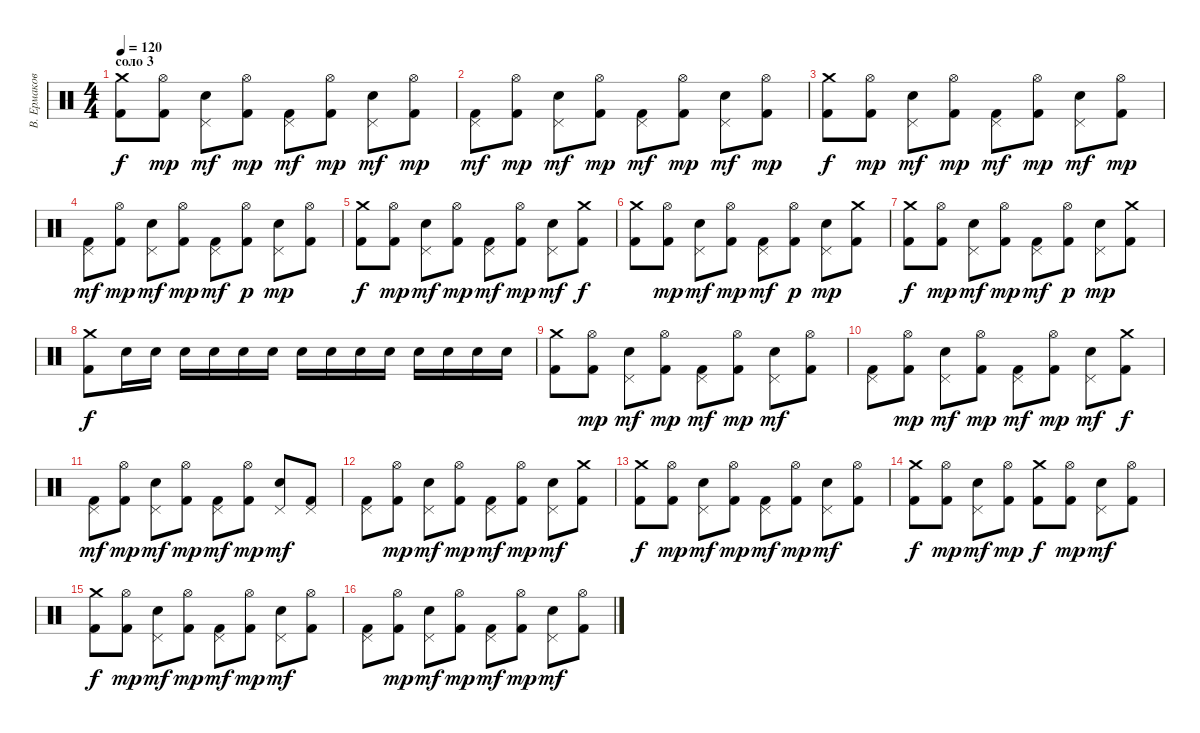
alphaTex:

\track ("В. Ермаков" "В. Ермаков") {instrument percussion}
\staff {score}
\articulation defaults
\ts (4 4)
\section ("" "соло 3")
\tempo 120
\clef neutral
\ks c
("Crash medium (hit)" "Kick (hit) 2").8{dy f} ("Hi-Hat (open)" "Kick (hit) 2").8{dy mp} ("Pedal Hi-Hat (hit)" "Electric Snare (hit)").8{dy mf} ("Hi-Hat (open)" "Kick (hit) 2").8{dy mp} ("Pedal Hi-Hat (hit)" "Kick (hit) 2").8{dy mf} ("Hi-Hat (open)" "Kick (hit) 2").8{dy mp} ("Pedal Hi-Hat (hit)" "Electric Snare (hit)").8{dy mf} ("Hi-Hat (open)" "Kick (hit) 2").8{dy mp} |
("Pedal Hi-Hat (hit)" "Kick (hit) 2").8{dy mf} ("Hi-Hat (open)" "Kick (hit) 2").8{dy mp} ("Pedal Hi-Hat (hit)" "Electric Snare (hit)").8{dy mf} ("Hi-Hat (open)" "Kick (hit) 2").8{dy mp} ("Pedal Hi-Hat (hit)" "Kick (hit) 2").8{dy mf} ("Hi-Hat (open)" "Kick (hit) 2").8{dy mp} ("Pedal Hi-Hat (hit)" "Electric Snare (hit)").8{dy mf} ("Hi-Hat (open)" "Kick (hit) 2").8{dy mp} |
("Crash medium (hit)" "Kick (hit) 2").8{dy f} ("Hi-Hat (open)" "Kick (hit) 2").8{dy mp} ("Pedal Hi-Hat (hit)" "Electric Snare (hit)").8{dy mf} ("Hi-Hat (open)" "Kick (hit) 2").8{dy mp} ("Pedal Hi-Hat (hit)" "Kick (hit) 2").8{dy mf} ("Hi-Hat (open)" "Kick (hit) 2").8{dy mp} ("Pedal Hi-Hat (hit)" "Electric Snare (hit)").8{dy mf} ("Hi-Hat (open)" "Kick (hit) 2").8{dy mp} |
("Pedal Hi-Hat (hit)" "Kick (hit) 2").8{dy mf} ("Hi-Hat (open)" "Kick (hit) 2").8{dy mp} ("Pedal Hi-Hat (hit)" "Electric Snare (hit)").8{dy mf} ("Hi-Hat (open)" "Kick (hit) 2").8{dy mp} ("Pedal Hi-Hat (hit)" "Kick (hit) 2").8{dy mf} ("Hi-Hat (open)" "Kick (hit) 2").8{dy p} ("Pedal Hi-Hat (hit)" "Electric Snare (hit)").8{dy mp} ("Hi-Hat (open)" "Kick (hit) 2").8 |
("Crash medium (hit)" "Kick (hit) 2").8{dy f} ("Hi-Hat (open)" "Kick (hit) 2").8{dy mp} ("Pedal Hi-Hat (hit)" "Electric Snare (hit)").8{dy mf} ("Hi-Hat (open)" "Kick (hit) 2").8{dy mp} ("Pedal Hi-Hat (hit)" "Kick (hit) 2").8{dy mf} ("Hi-Hat (open)" "Kick (hit) 2").8{dy mp} ("Pedal Hi-Hat (hit)" "Electric Snare (hit)").8{dy mf} ("Crash medium (hit)" "Kick (hit) 2").8{dy f} |
("Crash medium (hit)" "Kick (hit) 2").8 ("Hi-Hat (open)" "Kick (hit) 2").8{dy mp} ("Pedal Hi-Hat (hit)" "Electric Snare (hit)").8{dy mf} ("Hi-Hat (open)" "Kick (hit) 2").8{dy mp} ("Pedal Hi-Hat (hit)" "Kick (hit) 2").8{dy mf} ("Hi-Hat (open)" "Kick (hit) 2").8{dy p} ("Pedal Hi-Hat (hit)" "Electric Snare (hit)").8{dy mp} ("Crash medium (hit)" "Kick (hit) 2").8 |
("Crash medium (hit)" "Kick (hit) 2").8{dy f} ("Hi-Hat (open)" "Kick (hit) 2").8{dy mp} ("Pedal Hi-Hat (hit)" "Electric Snare (hit)").8{dy mf} ("Hi-Hat (open)" "Kick (hit) 2").8{dy mp} ("Pedal Hi-Hat (hit)" "Kick (hit) 2").8{dy mf} ("Hi-Hat (open)" "Kick (hit) 2").8{dy p} ("Pedal Hi-Hat (hit)" "Electric Snare (hit)").8{dy mp} ("Crash medium (hit)" "Kick (hit) 2").8 |
("Crash medium (hit)" "Kick (hit) 2").8{dy f} "Electric Snare (hit)".16 "Electric Snare (hit)".16 "Electric Snare (hit)".16 "Electric Snare (hit)".16 "Electric Snare (hit)".16 "Electric Snare (hit)".16 "Electric Snare (hit)".16 "Electric Snare (hit)".16 "Electric Snare (hit)".16 "Electric Snare (hit)".16 "Electric Snare (hit)".16 "Electric Snare (hit)".16 "Electric Snare (hit)".16 "Electric Snare (hit)".16 |
("Crash medium (hit)" "Kick (hit) 2").8 ("Hi-Hat (open)" "Kick (hit) 2").8{dy mp} ("Pedal Hi-Hat (hit)" "Electric Snare (hit)").8{dy mf} ("Hi-Hat (open)" "Kick (hit) 2").8{dy mp} ("Pedal Hi-Hat (hit)" "Kick (hit) 2").8{dy mf} ("Hi-Hat (open)" "Kick (hit) 2").8{dy mp} ("Pedal Hi-Hat (hit)" "Electric Snare (hit)").8{dy mf} ("Hi-Hat (open)" "Kick (hit) 2").8 |
("Pedal Hi-Hat (hit)" "Kick (hit) 2").8 ("Hi-Hat (open)" "Kick (hit) 2").8{dy mp} ("Pedal Hi-Hat (hit)" "Electric Snare (hit)").8{dy mf} ("Hi-Hat (open)" "Kick (hit) 2").8{dy mp} ("Pedal Hi-Hat (hit)" "Kick (hit) 2").8{dy mf} ("Hi-Hat (open)" "Kick (hit) 2").8{dy mp} ("Pedal Hi-Hat (hit)" "Electric Snare (hit)").8{dy mf} ("Crash medium (hit)" "Kick (hit) 2").8{dy f} |
("Pedal Hi-Hat (hit)" "Kick (hit) 2").8{dy mf} ("Hi-Hat (open)" "Kick (hit) 2").8{dy mp} ("Pedal Hi-Hat (hit)" "Electric Snare (hit)").8{dy mf} ("Hi-Hat (open)" "Kick (hit) 2").8{dy mp} ("Pedal Hi-Hat (hit)" "Kick (hit) 2").8{dy mf} ("Hi-Hat (open)" "Kick (hit) 2").8{dy mp} ("Pedal Hi-Hat (hit)" "Electric Snare (hit)").8{dy mf} ("Pedal Hi-Hat (hit)" "Kick (hit) 2").8 |
("Pedal Hi-Hat (hit)" "Kick (hit) 2").8 ("Hi-Hat (open)" "Kick (hit) 2").8{dy mp} ("Pedal Hi-Hat (hit)" "Electric Snare (hit)").8{dy mf} ("Hi-Hat (open)" "Kick (hit) 2").8{dy mp} ("Pedal Hi-Hat (hit)" "Kick (hit) 2").8{dy mf} ("Hi-Hat (open)" "Kick (hit) 2").8{dy mp} ("Pedal Hi-Hat (hit)" "Electric Snare (hit)").8{dy mf} ("Crash medium (hit)" "Kick (hit) 2").8 |
("Crash medium (hit)" "Kick (hit) 2").8{dy f} ("Hi-Hat (open)" "Kick (hit) 2").8{dy mp} ("Pedal Hi-Hat (hit)" "Electric Snare (hit)").8{dy mf} ("Hi-Hat (open)" "Kick (hit) 2").8{dy mp} ("Pedal Hi-Hat (hit)" "Kick (hit) 2").8{dy mf} ("Hi-Hat (open)" "Kick (hit) 2").8{dy mp} ("Pedal Hi-Hat (hit)" "Electric Snare (hit)").8{dy mf} ("Hi-Hat (open)" "Kick (hit) 2").8 |
("Crash medium (hit)" "Kick (hit) 2").8{dy f} ("Hi-Hat (open)" "Kick (hit) 2").8{dy mp} ("Pedal Hi-Hat (hit)" "Electric Snare (hit)").8{dy mf} ("Hi-Hat (open)" "Kick (hit) 2").8{dy mp} ("Crash medium (hit)" "Kick (hit) 2").8{dy f} ("Hi-Hat (open)" "Kick (hit) 2").8{dy mp} ("Pedal Hi-Hat (hit)" "Electric Snare (hit)").8{dy mf} ("Hi-Hat (open)" "Kick (hit) 2").8 |
("Crash medium (hit)" "Kick (hit) 2").8{dy f} ("Hi-Hat (open)" "Kick (hit) 2").8{dy mp} ("Pedal Hi-Hat (hit)" "Electric Snare (hit)").8{dy mf} ("Hi-Hat (open)" "Kick (hit) 2").8{dy mp} ("Pedal Hi-Hat (hit)" "Kick (hit) 2").8{dy mf} ("Hi-Hat (open)" "Kick (hit) 2").8{dy mp} ("Pedal Hi-Hat (hit)" "Electric Snare (hit)").8{dy mf} ("Hi-Hat (open)" "Kick (hit) 2").8 |
("Pedal Hi-Hat (hit)" "Kick (hit) 2").8 ("Hi-Hat (open)" "Kick (hit) 2").8{dy mp} ("Pedal Hi-Hat (hit)" "Electric Snare (hit)").8{dy mf} ("Hi-Hat (open)" "Kick (hit) 2").8{dy mp} ("Pedal Hi-Hat (hit)" "Kick (hit) 2").8{dy mf} ("Hi-Hat (open)" "Kick (hit) 2").8{dy mp} ("Pedal Hi-Hat (hit)" "Electric Snare (hit)").8{dy mf} ("Hi-Hat (open)" "Kick (hit) 2").8
